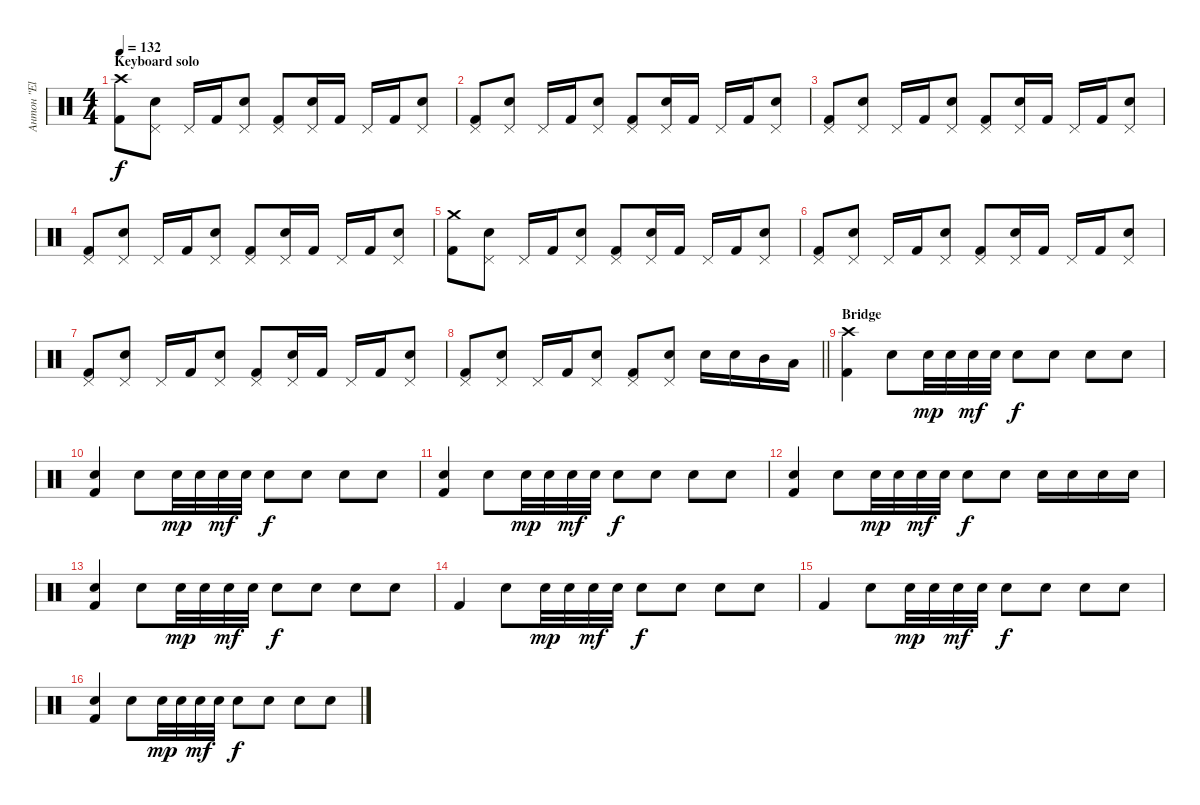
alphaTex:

\track ("Антон \"El Bastardo\" Смольянин" "Антон \"El ") {instrument percussion}
\staff {score}
\articulation defaults
\ts (4 4)
\section ("" "Keyboard solo")
\tempo 132
\clef neutral
\ks c
("Crash high (hit)" "Kick (hit) 2").8{dy f} ("Pedal Hi-Hat (hit)" "Electric Snare (hit)").8 "Pedal Hi-Hat (hit)".16 "Kick (hit) 2".16 ("Pedal Hi-Hat (hit)" "Electric Snare (hit)").8 ("Pedal Hi-Hat (hit)" "Kick (hit) 2").8 ("Pedal Hi-Hat (hit)" "Electric Snare (hit)").16 "Kick (hit) 2".16 "Pedal Hi-Hat (hit)".16 "Kick (hit) 2".16 ("Pedal Hi-Hat (hit)" "Electric Snare (hit)").8 |
("Pedal Hi-Hat (hit)" "Kick (hit) 2").8 ("Pedal Hi-Hat (hit)" "Electric Snare (hit)").8 "Pedal Hi-Hat (hit)".16 "Kick (hit) 2".16 ("Pedal Hi-Hat (hit)" "Electric Snare (hit)").8 ("Pedal Hi-Hat (hit)" "Kick (hit) 2").8 ("Pedal Hi-Hat (hit)" "Electric Snare (hit)").16 "Kick (hit) 2".16 "Pedal Hi-Hat (hit)".16 "Kick (hit) 2".16 ("Pedal Hi-Hat (hit)" "Electric Snare (hit)").8 |
("Pedal Hi-Hat (hit)" "Kick (hit) 2").8 ("Pedal Hi-Hat (hit)" "Electric Snare (hit)").8 "Pedal Hi-Hat (hit)".16 "Kick (hit) 2".16 ("Pedal Hi-Hat (hit)" "Electric Snare (hit)").8 ("Pedal Hi-Hat (hit)" "Kick (hit) 2").8 ("Pedal Hi-Hat (hit)" "Electric Snare (hit)").16 "Kick (hit) 2".16 "Pedal Hi-Hat (hit)".16 "Kick (hit) 2".16 ("Pedal Hi-Hat (hit)" "Electric Snare (hit)").8 |
("Pedal Hi-Hat (hit)" "Kick (hit) 2").8 ("Pedal Hi-Hat (hit)" "Electric Snare (hit)").8 "Pedal Hi-Hat (hit)".16 "Kick (hit) 2".16 ("Pedal Hi-Hat (hit)" "Electric Snare (hit)").8 ("Pedal Hi-Hat (hit)" "Kick (hit) 2").8 ("Pedal Hi-Hat (hit)" "Electric Snare (hit)").16 "Kick (hit) 2".16 "Pedal Hi-Hat (hit)".16 "Kick (hit) 2".16 ("Pedal Hi-Hat (hit)" "Electric Snare (hit)").8 |
("Crash medium (hit)" "Kick (hit) 2").8 ("Pedal Hi-Hat (hit)" "Electric Snare (hit)").8 "Pedal Hi-Hat (hit)".16 "Kick (hit) 2".16 ("Pedal Hi-Hat (hit)" "Electric Snare (hit)").8 ("Pedal Hi-Hat (hit)" "Kick (hit) 2").8 ("Pedal Hi-Hat (hit)" "Electric Snare (hit)").16 "Kick (hit) 2".16 "Pedal Hi-Hat (hit)".16 "Kick (hit) 2".16 ("Pedal Hi-Hat (hit)" "Electric Snare (hit)").8 |
("Pedal Hi-Hat (hit)" "Kick (hit) 2").8 ("Pedal Hi-Hat (hit)" "Electric Snare (hit)").8 "Pedal Hi-Hat (hit)".16 "Kick (hit) 2".16 ("Pedal Hi-Hat (hit)" "Electric Snare (hit)").8 ("Pedal Hi-Hat (hit)" "Kick (hit) 2").8 ("Pedal Hi-Hat (hit)" "Electric Snare (hit)").16 "Kick (hit) 2".16 "Pedal Hi-Hat (hit)".16 "Kick (hit) 2".16 ("Pedal Hi-Hat (hit)" "Electric Snare (hit)").8 |
("Pedal Hi-Hat (hit)" "Kick (hit) 2").8 ("Pedal Hi-Hat (hit)" "Electric Snare (hit)").8 "Pedal Hi-Hat (hit)".16 "Kick (hit) 2".16 ("Pedal Hi-Hat (hit)" "Electric Snare (hit)").8 ("Pedal Hi-Hat (hit)" "Kick (hit) 2").8 ("Pedal Hi-Hat (hit)" "Electric Snare (hit)").16 "Kick (hit) 2".16 "Pedal Hi-Hat (hit)".16 "Kick (hit) 2".16 ("Pedal Hi-Hat (hit)" "Electric Snare (hit)").8 |
\barLineRight lightlight
("Pedal Hi-Hat (hit)" "Kick (hit) 2").8 ("Pedal Hi-Hat (hit)" "Electric Snare (hit)").8 "Pedal Hi-Hat (hit)".16 "Kick (hit) 2".16 ("Pedal Hi-Hat (hit)" "Electric Snare (hit)").8 ("Pedal Hi-Hat (hit)" "Kick (hit) 2").8 ("Pedal Hi-Hat (hit)" "Electric Snare (hit)").8 "Electric Snare (hit)".16 "Electric Snare (hit)".16 "Mid Tom (hit)".16 "Low Tom (hit)".16 |
\section ("" "Bridge")
("Crash high (hit)" "Kick (hit) 2").4 "Electric Snare (hit)".8 "Electric Snare (hit)".32{dy mp} "Electric Snare (hit)".32 "Electric Snare (hit)".32{dy mf} "Electric Snare (hit)".32 "Electric Snare (hit)".8{dy f} "Electric Snare (hit)".8 "Electric Snare (hit)".8 "Electric Snare (hit)".8 |
("Electric Snare (hit)" "Kick (hit) 2").4 "Electric Snare (hit)".8 "Electric Snare (hit)".32{dy mp} "Electric Snare (hit)".32 "Electric Snare (hit)".32{dy mf} "Electric Snare (hit)".32 "Electric Snare (hit)".8{dy f} "Electric Snare (hit)".8 "Electric Snare (hit)".8 "Electric Snare (hit)".8 |
("Electric Snare (hit)" "Kick (hit) 2").4 "Electric Snare (hit)".8 "Electric Snare (hit)".32{dy mp} "Electric Snare (hit)".32 "Electric Snare (hit)".32{dy mf} "Electric Snare (hit)".32 "Electric Snare (hit)".8{dy f} "Electric Snare (hit)".8 "Electric Snare (hit)".8 "Electric Snare (hit)".8 |
("Electric Snare (hit)" "Kick (hit) 2").4 "Electric Snare (hit)".8 "Electric Snare (hit)".32{dy mp} "Electric Snare (hit)".32 "Electric Snare (hit)".32{dy mf} "Electric Snare (hit)".32 "Electric Snare (hit)".8{dy f} "Electric Snare (hit)".8 "Electric Snare (hit)".16 "Electric Snare (hit)".16 "Electric Snare (hit)".16 "Electric Snare (hit)".16 |
("Electric Snare (hit)" "Kick (hit) 2").4 "Electric Snare (hit)".8 "Electric Snare (hit)".32{dy mp} "Electric Snare (hit)".32 "Electric Snare (hit)".32{dy mf} "Electric Snare (hit)".32 "Electric Snare (hit)".8{dy f} "Electric Snare (hit)".8 "Electric Snare (hit)".8 "Electric Snare (hit)".8 |
"Kick (hit) 2".4 "Electric Snare (hit)".8 "Electric Snare (hit)".32{dy mp} "Electric Snare (hit)".32 "Electric Snare (hit)".32{dy mf} "Electric Snare (hit)".32 "Electric Snare (hit)".8{dy f} "Electric Snare (hit)".8 "Electric Snare (hit)".8 "Electric Snare (hit)".8 |
"Kick (hit) 2".4 "Electric Snare (hit)".8 "Electric Snare (hit)".32{dy mp} "Electric Snare (hit)".32 "Electric Snare (hit)".32{dy mf} "Electric Snare (hit)".32 "Electric Snare (hit)".8{dy f} "Electric Snare (hit)".8 "Electric Snare (hit)".8 "Electric Snare (hit)".8 |
("Electric Snare (hit)" "Kick (hit) 2").4 "Electric Snare (hit)".8 "Electric Snare (hit)".32{dy mp} "Electric Snare (hit)".32 "Electric Snare (hit)".32{dy mf} "Electric Snare (hit)".32 "Electric Snare (hit)".8{dy f} "Electric Snare (hit)".8 "Electric Snare (hit)".8 "Electric Snare (hit)".8
